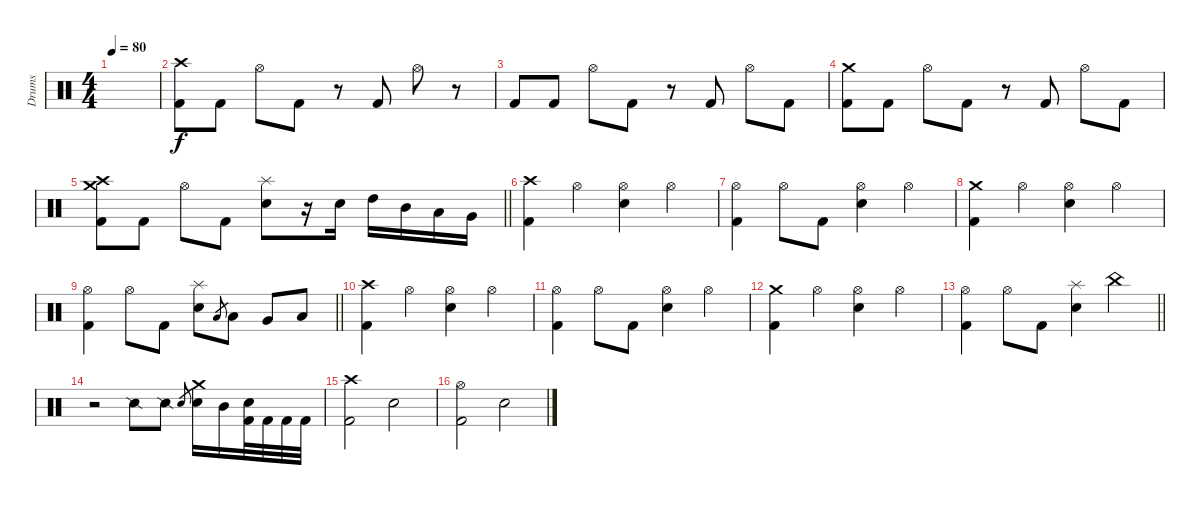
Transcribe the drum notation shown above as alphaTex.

\track ("Drums" "Drums") {instrument percussion}
\staff {score}
\articulation defaults
\ts (4 4)
\tempo 80
\clef neutral
\ks c
|
("Kick (hit) 2" "Crash high (hit)").8 "Kick (hit) 2".8 "Hi-Hat (open)".8 "Kick (hit) 2".8 r.8 "Kick (hit) 2".8 "Hi-Hat (open)".8 r.8 |
"Kick (hit) 2".8 "Kick (hit) 2".8 "Hi-Hat (open)".8 "Kick (hit) 2".8 r.8 "Kick (hit) 2".8 "Hi-Hat (open)".8 "Kick (hit) 2".8 |
("Kick (hit) 2" "Crash medium (hit)").8 "Kick (hit) 2".8 "Hi-Hat (open)".8 "Kick (hit) 2".8 r.8 "Kick (hit) 2".8 "Hi-Hat (open)".8 "Kick (hit) 2".8 |
\barLineRight lightlight
("Kick (hit) 2" "Crash high (hit)" "Crash medium (hit)").8 "Kick (hit) 2".8 "Hi-Hat (open)".8 "Kick (hit) 2".8 ("Electric Snare (hit)" "Splash (hit)").8 r.16 "Electric Snare (hit)".16 "High Tom (hit)".16 "Mid Tom (hit)".16 "Low Tom (hit)".16 "Very Low Tom (hit)".16 |
("Kick (hit) 2" "Crash high (hit)").4 "Hi-Hat (open)".4 ("Electric Snare (hit)" "Hi-Hat (open)").4 "Hi-Hat (open)".4 |
("Kick (hit) 2" "Hi-Hat (open)").4 "Hi-Hat (open)".8 "Kick (hit) 2".8 ("Electric Snare (hit)" "Hi-Hat (open)").4 "Hi-Hat (open)".4 |
("Kick (hit) 2" "Crash medium (hit)").4 "Hi-Hat (open)".4 ("Electric Snare (hit)" "Hi-Hat (open)").4 "Hi-Hat (open)".4 |
\barLineRight lightlight
("Kick (hit) 2" "Hi-Hat (open)").4 "Hi-Hat (open)".8 "Kick (hit) 2".8 ("Electric Snare (hit)" "Splash (hit)").8 "Low Tom (hit)".8{gr} "Low Tom (hit)".8 "Very Low Tom (hit)".8 "Low Floor Tom (hit)".8 |
("Kick (hit) 2" "Crash high (hit)").4 "Hi-Hat (open)".4 ("Electric Snare (hit)" "Hi-Hat (open)").4 "Hi-Hat (open)".4 |
("Kick (hit) 2" "Hi-Hat (open)").4 "Hi-Hat (open)".8 "Kick (hit) 2".8 ("Electric Snare (hit)" "Hi-Hat (open)").4 "Hi-Hat (open)".4 |
("Kick (hit) 2" "Crash medium (hit)").4 "Hi-Hat (open)".4 ("Electric Snare (hit)" "Hi-Hat (open)").4 "Hi-Hat (open)".4 |
\barLineRight lightlight
("Kick (hit) 2" "Hi-Hat (open)").4 "Hi-Hat (open)".8 "Kick (hit) 2".8 ("Electric Snare (hit)" "Splash (hit)").4 "China (hit)".4 |
r.2 "Snare (side stick) 2".8 "Snare (side stick) 2".8 "Electric Snare (hit)".8{gr} ("Electric Snare (hit)" "Crash medium (hit)").16 "Mid Tom (hit)".16 ("Kick (hit) 2" "Electric Snare (hit)").32 "Kick (hit) 2".32 "Kick (hit) 2".32 "Kick (hit) 2".32 |
("Kick (hit) 2" "Crash high (hit)").2 "Electric Snare (hit)".2 |
("Kick (hit) 2" "Hi-Hat (open)").2 "Electric Snare (hit)".2
